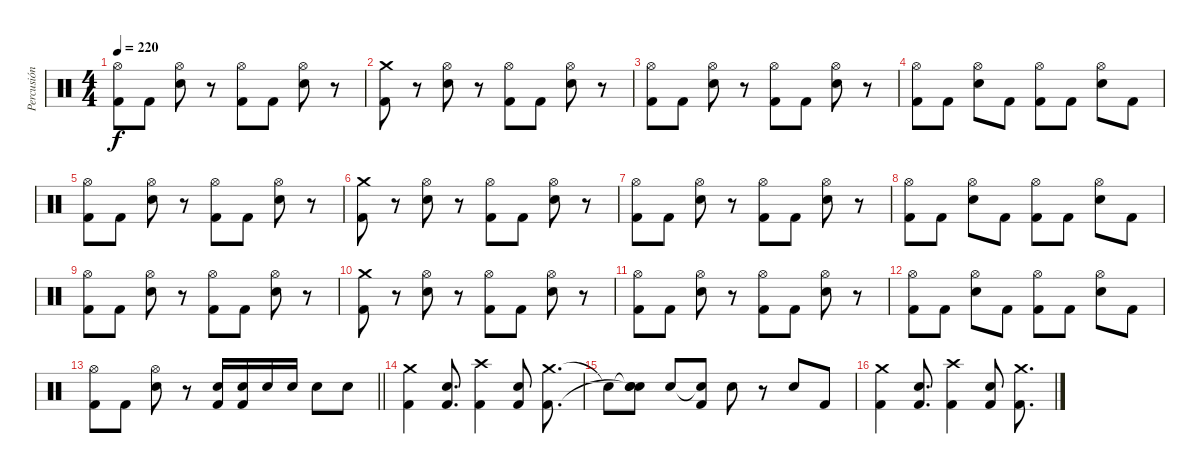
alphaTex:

\track ("Percusión" "Percusión") {instrument percussion}
\staff {score}
\articulation defaults
\ts (4 4)
\tempo 220
\clef neutral
\ks c
("Hi-Hat (open)" "Kick (hit) 2").8{dy f} "Kick (hit) 2".8 ("Hi-Hat (open)" "Electric Snare (hit)").8 r.8 ("Hi-Hat (open)" "Kick (hit) 2").8 "Kick (hit) 2".8 ("Hi-Hat (open)" "Electric Snare (hit)").8 r.8 |
("Crash medium (hit)" "Kick (hit) 2").8 r.8 ("Hi-Hat (open)" "Electric Snare (hit)").8 r.8 ("Hi-Hat (open)" "Kick (hit) 2").8 "Kick (hit) 2".8 ("Hi-Hat (open)" "Electric Snare (hit)").8 r.8 |
("Hi-Hat (open)" "Kick (hit) 2").8 "Kick (hit) 2".8 ("Hi-Hat (open)" "Electric Snare (hit)").8 r.8 ("Hi-Hat (open)" "Kick (hit) 2").8 "Kick (hit) 2".8 ("Hi-Hat (open)" "Electric Snare (hit)").8 r.8 |
("Hi-Hat (open)" "Kick (hit) 2").8 "Kick (hit) 2".8 ("Hi-Hat (open)" "Electric Snare (hit)").8 "Kick (hit) 2".8 ("Hi-Hat (open)" "Kick (hit) 2").8 "Kick (hit) 2".8 ("Hi-Hat (open)" "Electric Snare (hit)").8 "Kick (hit) 2".8 |
("Hi-Hat (open)" "Kick (hit) 2").8 "Kick (hit) 2".8 ("Hi-Hat (open)" "Electric Snare (hit)").8 r.8 ("Hi-Hat (open)" "Kick (hit) 2").8 "Kick (hit) 2".8 ("Hi-Hat (open)" "Electric Snare (hit)").8 r.8 |
("Crash medium (hit)" "Kick (hit) 2").8 r.8 ("Hi-Hat (open)" "Electric Snare (hit)").8 r.8 ("Hi-Hat (open)" "Kick (hit) 2").8 "Kick (hit) 2".8 ("Hi-Hat (open)" "Electric Snare (hit)").8 r.8 |
("Hi-Hat (open)" "Kick (hit) 2").8 "Kick (hit) 2".8 ("Hi-Hat (open)" "Electric Snare (hit)").8 r.8 ("Hi-Hat (open)" "Kick (hit) 2").8 "Kick (hit) 2".8 ("Hi-Hat (open)" "Electric Snare (hit)").8 r.8 |
("Hi-Hat (open)" "Kick (hit) 2").8 "Kick (hit) 2".8 ("Hi-Hat (open)" "Electric Snare (hit)").8 "Kick (hit) 2".8 ("Hi-Hat (open)" "Kick (hit) 2").8 "Kick (hit) 2".8 ("Hi-Hat (open)" "Electric Snare (hit)").8 "Kick (hit) 2".8 |
("Hi-Hat (open)" "Kick (hit) 2").8 "Kick (hit) 2".8 ("Hi-Hat (open)" "Electric Snare (hit)").8 r.8 ("Hi-Hat (open)" "Kick (hit) 2").8 "Kick (hit) 2".8 ("Hi-Hat (open)" "Electric Snare (hit)").8 r.8 |
("Crash medium (hit)" "Kick (hit) 2").8 r.8 ("Hi-Hat (open)" "Electric Snare (hit)").8 r.8 ("Hi-Hat (open)" "Kick (hit) 2").8 "Kick (hit) 2".8 ("Hi-Hat (open)" "Electric Snare (hit)").8 r.8 |
("Hi-Hat (open)" "Kick (hit) 2").8 "Kick (hit) 2".8 ("Hi-Hat (open)" "Electric Snare (hit)").8 r.8 ("Hi-Hat (open)" "Kick (hit) 2").8 "Kick (hit) 2".8 ("Hi-Hat (open)" "Electric Snare (hit)").8 r.8 |
("Hi-Hat (open)" "Kick (hit) 2").8 "Kick (hit) 2".8 ("Hi-Hat (open)" "Electric Snare (hit)").8 "Kick (hit) 2".8 ("Hi-Hat (open)" "Kick (hit) 2").8 "Kick (hit) 2".8 ("Hi-Hat (open)" "Electric Snare (hit)").8 "Kick (hit) 2".8 |
\barLineRight lightlight
("Hi-Hat (open)" "Kick (hit) 2").8 "Kick (hit) 2".8 ("Hi-Hat (open)" "Electric Snare (hit)").8 r.8 ("Electric Snare (hit)" "Kick (hit) 2").16 ("Electric Snare (hit)" "Kick (hit) 2").16 "Electric Snare (hit)".16 "Electric Snare (hit)".16 "Electric Snare (hit)".8 "Electric Snare (hit)".8 |
("Crash medium (hit)" "Kick (hit) 2").4 ("Electric Snare (hit)" "Kick (hit) 2").8{d} ("Crash high (hit)" "Kick (hit) 2").4 ("Electric Snare (hit)" "Kick (hit) 2").8 ("Crash medium (hit)" "Kick (hit) 2").8{d} |
"Snare (hit)"{t}.8 ("Snare (hit)"{t} "Snare (hit)"{t} "Snare (hit)").8 "Electric Snare (hit)".8 ("Snare (hit)"{t} "Kick (hit) 2").8 "Electric Snare (hit)".8 r.8 "Electric Snare (hit)".8 "Kick (hit) 2".8 |
("Crash medium (hit)" "Kick (hit) 2").4 ("Electric Snare (hit)" "Kick (hit) 2").8{d} ("Crash high (hit)" "Kick (hit) 2").4 ("Electric Snare (hit)" "Kick (hit) 2").8 ("Crash medium (hit)" "Kick (hit) 2").8{d}
